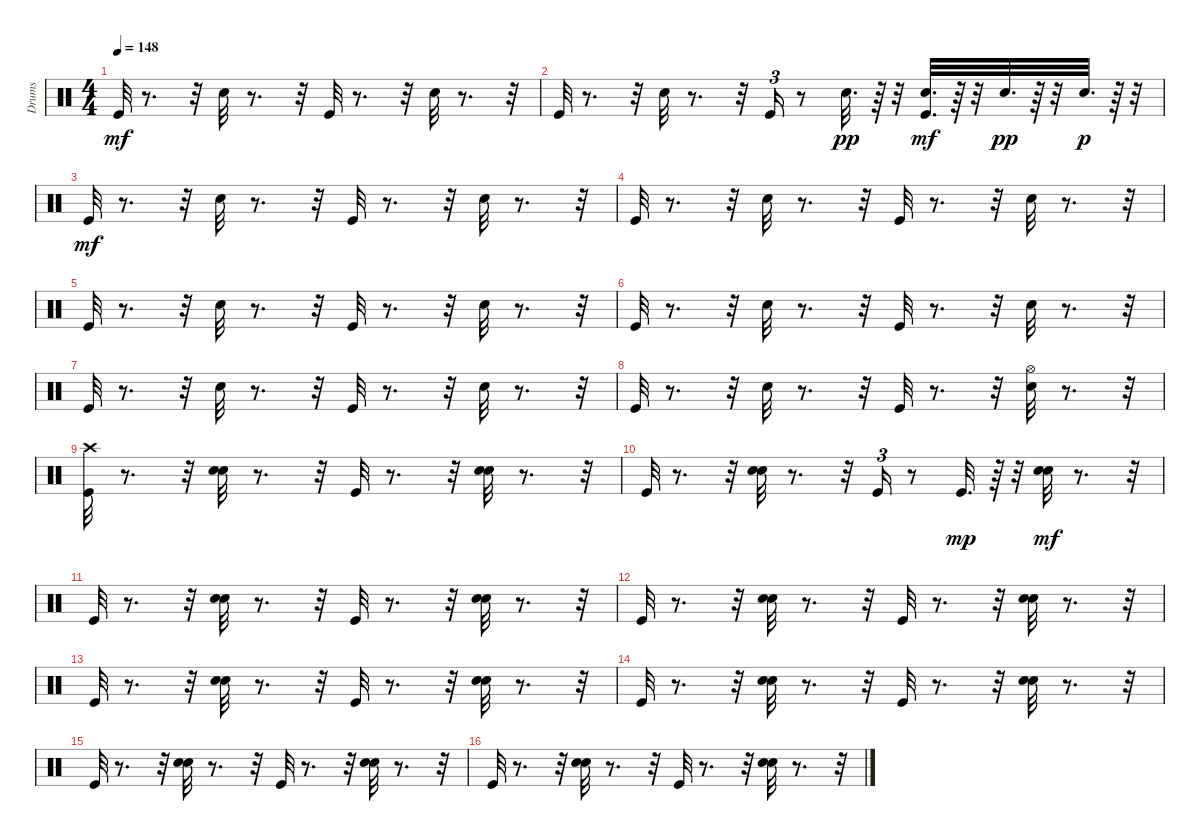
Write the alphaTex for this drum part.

\track ("Drums" "Drums") {instrument percussion}
\staff {score}
\articulation defaults
\ts (4 4)
\tempo 148
\clef neutral
\ks c "Kick (hit)".32{dy mf}
r.8{d} r.32 "Electric Snare (hit)".32 r.8{d} r.32 "Kick (hit)".32 r.8{d} r.32 "Electric Snare (hit)".32 r.8{d} r.32 |
"Kick (hit)".32 r.8{d} r.32 "Electric Snare (hit)".32 r.8{d} r.32 "Kick (hit)".16{tu (3 2)} r.8 "Electric Snare (hit)".32{d dy pp} r.64 r.32 ("Kick (hit)" "Electric Snare (hit)").32{d dy mf} r.64 r.32 "Electric Snare (hit)".32{d dy pp} r.64 r.32 "Electric Snare (hit)".32{d dy p} r.64 r.32 |
"Kick (hit)".32{dy mf} r.8{d} r.32 "Electric Snare (hit)".32 r.8{d} r.32 "Kick (hit)".32 r.8{d} r.32 "Electric Snare (hit)".32 r.8{d} r.32 |
"Kick (hit)".32 r.8{d} r.32 "Electric Snare (hit)".32 r.8{d} r.32 "Kick (hit)".32 r.8{d} r.32 "Electric Snare (hit)".32 r.8{d} r.32 |
"Kick (hit)".32 r.8{d} r.32 "Electric Snare (hit)".32 r.8{d} r.32 "Kick (hit)".32 r.8{d} r.32 "Electric Snare (hit)".32 r.8{d} r.32 |
"Kick (hit)".32 r.8{d} r.32 "Electric Snare (hit)".32 r.8{d} r.32 "Kick (hit)".32 r.8{d} r.32 "Electric Snare (hit)".32 r.8{d} r.32 |
"Kick (hit)".32 r.8{d} r.32 "Electric Snare (hit)".32 r.8{d} r.32 "Kick (hit)".32 r.8{d} r.32 "Electric Snare (hit)".32 r.8{d} r.32 |
"Kick (hit)".32 r.8{d} r.32 "Electric Snare (hit)".32 r.8{d} r.32 "Kick (hit)".32 r.8{d} r.32 ("Hi-Hat (open)" "Electric Snare (hit)").32 r.8{d} r.32 |
("Crash high (hit)" "Kick (hit)").32 r.8{d} r.32 ("Hand Clap (hit)" "Electric Snare (hit)").32 r.8{d} r.32 "Kick (hit)".32 r.8{d} r.32 ("Hand Clap (hit)" "Electric Snare (hit)").32 r.8{d} r.32 |
"Kick (hit)".32 r.8{d} r.32 ("Hand Clap (hit)" "Electric Snare (hit)").32 r.8{d} r.32 "Kick (hit)".16{tu (3 2)} r.8 "Kick (hit)".32{d dy mp} r.64 r.32 ("Hand Clap (hit)" "Electric Snare (hit)").32{dy mf} r.8{d} r.32 |
"Kick (hit)".32 r.8{d} r.32 ("Hand Clap (hit)" "Electric Snare (hit)").32 r.8{d} r.32 "Kick (hit)".32 r.8{d} r.32 ("Hand Clap (hit)" "Electric Snare (hit)").32 r.8{d} r.32 |
"Kick (hit)".32 r.8{d} r.32 ("Hand Clap (hit)" "Electric Snare (hit)").32 r.8{d} r.32 "Kick (hit)".32 r.8{d} r.32 ("Hand Clap (hit)" "Electric Snare (hit)").32 r.8{d} r.32 |
"Kick (hit)".32 r.8{d} r.32 ("Hand Clap (hit)" "Electric Snare (hit)").32 r.8{d} r.32 "Kick (hit)".32 r.8{d} r.32 ("Hand Clap (hit)" "Electric Snare (hit)").32 r.8{d} r.32 |
"Kick (hit)".32 r.8{d} r.32 ("Hand Clap (hit)" "Electric Snare (hit)").32 r.8{d} r.32 "Kick (hit)".32 r.8{d} r.32 ("Hand Clap (hit)" "Electric Snare (hit)").32 r.8{d} r.32 |
"Kick (hit)".32 r.8{d} r.32 ("Hand Clap (hit)" "Electric Snare (hit)").32 r.8{d} r.32 "Kick (hit)".32 r.8{d} r.32 ("Hand Clap (hit)" "Electric Snare (hit)").32 r.8{d} r.32 |
"Kick (hit)".32 r.8{d} r.32 ("Hand Clap (hit)" "Electric Snare (hit)").32 r.8{d} r.32 "Kick (hit)".32 r.8{d} r.32 ("Hand Clap (hit)" "Electric Snare (hit)").32 r.8{d} r.32
